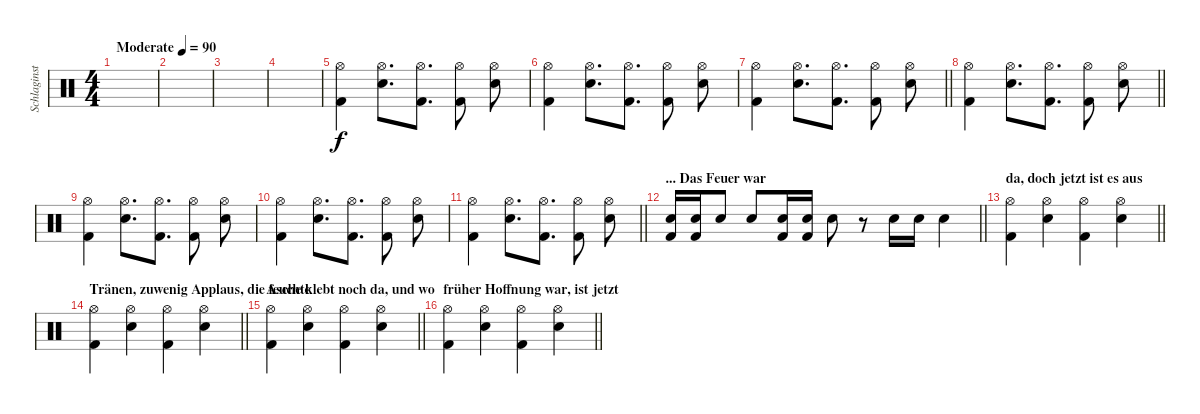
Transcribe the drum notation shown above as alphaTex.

\track ("Schlaginstrumente - Auswahl" "Schlaginst") {instrument percussion}
\staff {score}
\articulation defaults
\ts (4 4)
\tempo (90 "Moderate")
\clef neutral
\ks c
|
|
|
|
("Kick (hit) 2" "Hi-Hat (open)").4 ("Snare (hit) 2" "Hi-Hat (open)").8{d} ("Kick (hit) 2" "Hi-Hat (open)").8{d} ("Kick (hit) 2" "Hi-Hat (open)").8 ("Snare (hit) 2" "Hi-Hat (open)").8 |
("Kick (hit) 2" "Hi-Hat (open)").4 ("Snare (hit) 2" "Hi-Hat (open)").8{d} ("Kick (hit) 2" "Hi-Hat (open)").8{d} ("Kick (hit) 2" "Hi-Hat (open)").8 ("Snare (hit) 2" "Hi-Hat (open)").8 |
\barLineRight lightlight
("Kick (hit) 2" "Hi-Hat (open)").4 ("Snare (hit) 2" "Hi-Hat (open)").8{d} ("Kick (hit) 2" "Hi-Hat (open)").8{d} ("Kick (hit) 2" "Hi-Hat (open)").8 ("Snare (hit) 2" "Hi-Hat (open)").8 |
\barLineRight lightlight
("Kick (hit) 2" "Hi-Hat (open)").4 ("Snare (hit) 2" "Hi-Hat (open)").8{d} ("Kick (hit) 2" "Hi-Hat (open)").8{d} ("Kick (hit) 2" "Hi-Hat (open)").8 ("Snare (hit) 2" "Hi-Hat (open)").8 |
("Kick (hit) 2" "Hi-Hat (open)").4 ("Snare (hit) 2" "Hi-Hat (open)").8{d} ("Kick (hit) 2" "Hi-Hat (open)").8{d} ("Kick (hit) 2" "Hi-Hat (open)").8 ("Snare (hit) 2" "Hi-Hat (open)").8 |
("Kick (hit) 2" "Hi-Hat (open)").4 ("Snare (hit) 2" "Hi-Hat (open)").8{d} ("Kick (hit) 2" "Hi-Hat (open)").8{d} ("Kick (hit) 2" "Hi-Hat (open)").8 ("Snare (hit) 2" "Hi-Hat (open)").8 |
\barLineRight lightlight
("Kick (hit) 2" "Hi-Hat (open)").4 ("Snare (hit) 2" "Hi-Hat (open)").8{d} ("Kick (hit) 2" "Hi-Hat (open)").8{d} ("Kick (hit) 2" "Hi-Hat (open)").8 ("Snare (hit) 2" "Hi-Hat (open)").8 |
\section ("" "... Das Feuer war")
\barLineRight lightlight
("Kick (hit) 2" "Snare (hit) 2").16 ("Kick (hit) 2" "Snare (hit) 2").16 "Snare (hit) 2".8 "Snare (hit) 2".8 ("Kick (hit) 2" "Snare (hit) 2").16 ("Kick (hit) 2" "Snare (hit) 2").16 "Snare (hit) 2".8 r.8 "Snare (hit) 2".16 "Snare (hit) 2".16 "Snare (hit) 2".4 |
\section ("" "da, doch jetzt ist es aus")
\barLineRight lightlight
("Kick (hit) 2" "Hi-Hat (open)").4{volume 8} ("Snare (hit) 2" "Hi-Hat (open)").4 ("Kick (hit) 2" "Hi-Hat (open)").4 ("Snare (hit) 2" "Hi-Hat (open)").4 |
\section ("" "Tränen, zuwenig Applaus, die feuchte")
\barLineRight lightlight
("Kick (hit) 2" "Hi-Hat (open)").4 ("Snare (hit) 2" "Hi-Hat (open)").4 ("Kick (hit) 2" "Hi-Hat (open)").4 ("Snare (hit) 2" "Hi-Hat (open)").4 |
\section ("" "Asche klebt noch da, und wo")
\barLineRight lightlight
("Kick (hit) 2" "Hi-Hat (open)").4 ("Snare (hit) 2" "Hi-Hat (open)").4 ("Kick (hit) 2" "Hi-Hat (open)").4 ("Snare (hit) 2" "Hi-Hat (open)").4 |
\section ("" "früher Hoffnung war, ist jetzt")
\barLineRight lightlight
("Kick (hit) 2" "Hi-Hat (open)").4 ("Snare (hit) 2" "Hi-Hat (open)").4 ("Kick (hit) 2" "Hi-Hat (open)").4 ("Snare (hit) 2" "Hi-Hat (open)").4
